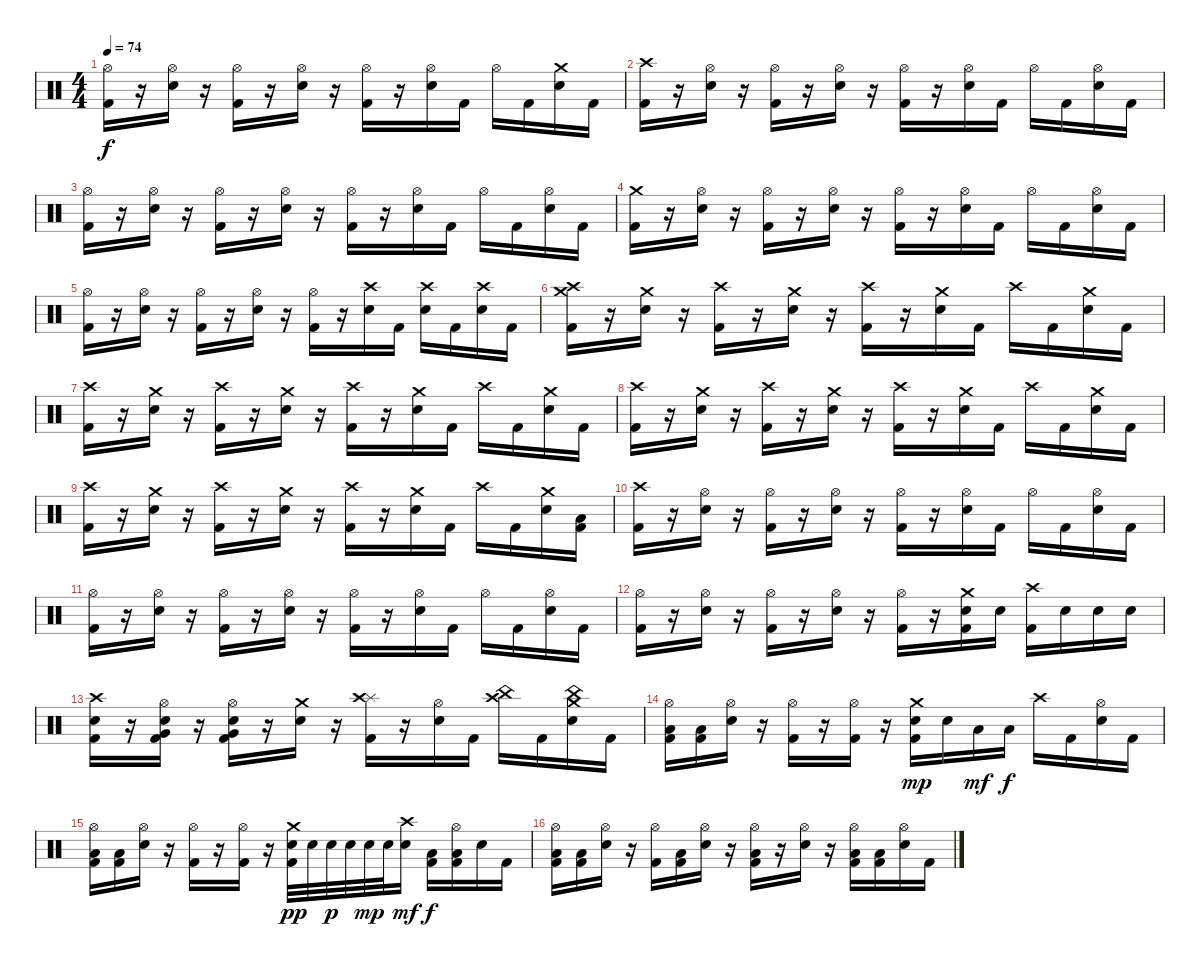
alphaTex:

\track "" {instrument percussion}
\staff {score}
\articulation defaults
\ts (4 4)
\tempo 74
\clef neutral
\ks c
("Hi-Hat (open)" "Kick (hit) 2").16{dy f} r.16 ("Hi-Hat (open)" "Electric Snare (hit)").16 r.16 ("Hi-Hat (open)" "Kick (hit) 2").16 r.16 ("Hi-Hat (open)" "Electric Snare (hit)").16 r.16 ("Hi-Hat (open)" "Kick (hit) 2").16 r.16 ("Hi-Hat (open)" "Electric Snare (hit)").16 "Kick (hit) 2".16 "Hi-Hat (open)".16 "Kick (hit) 2".16 ("Crash medium (hit)" "Electric Snare (hit)").16 "Kick (hit) 2".16 |
("Crash high (hit)" "Kick (hit) 2").16 r.16 ("Hi-Hat (open)" "Electric Snare (hit)").16 r.16 ("Hi-Hat (open)" "Kick (hit) 2").16 r.16 ("Hi-Hat (open)" "Electric Snare (hit)").16 r.16 ("Hi-Hat (open)" "Kick (hit) 2").16 r.16 ("Hi-Hat (open)" "Electric Snare (hit)").16 "Kick (hit) 2".16 "Hi-Hat (open)".16 "Kick (hit) 2".16 ("Hi-Hat (open)" "Electric Snare (hit)").16 "Kick (hit) 2".16 |
("Hi-Hat (open)" "Kick (hit) 2").16 r.16 ("Hi-Hat (open)" "Electric Snare (hit)").16 r.16 ("Hi-Hat (open)" "Kick (hit) 2").16 r.16 ("Hi-Hat (open)" "Electric Snare (hit)").16 r.16 ("Hi-Hat (open)" "Kick (hit) 2").16 r.16 ("Hi-Hat (open)" "Electric Snare (hit)").16 "Kick (hit) 2".16 "Hi-Hat (open)".16 "Kick (hit) 2".16 ("Hi-Hat (open)" "Electric Snare (hit)").16 "Kick (hit) 2".16 |
("Crash medium (hit)" "Kick (hit) 2").16 r.16 ("Hi-Hat (open)" "Electric Snare (hit)").16 r.16 ("Hi-Hat (open)" "Kick (hit) 2").16 r.16 ("Hi-Hat (open)" "Electric Snare (hit)").16 r.16 ("Hi-Hat (open)" "Kick (hit) 2").16 r.16 ("Hi-Hat (open)" "Electric Snare (hit)").16 "Kick (hit) 2".16 "Hi-Hat (open)".16 "Kick (hit) 2".16 ("Hi-Hat (open)" "Electric Snare (hit)").16 "Kick (hit) 2".16 |
("Hi-Hat (open)" "Kick (hit) 2").16 r.16 ("Hi-Hat (open)" "Electric Snare (hit)").16 r.16 ("Hi-Hat (open)" "Kick (hit) 2").16 r.16 ("Hi-Hat (open)" "Electric Snare (hit)").16 r.16 ("Hi-Hat (open)" "Kick (hit) 2").16 r.16 ("Crash high (hit)" "Electric Snare (hit)").16 "Kick (hit) 2".16 ("Crash high (hit)" "Electric Snare (hit)").16 "Kick (hit) 2".16 ("Crash high (hit)" "Electric Snare (hit)").16 "Kick (hit) 2".16 |
("Crash medium (hit)" "Crash high (hit)" "Kick (hit) 2").16 r.16 ("Crash medium (hit)" "Electric Snare (hit)").16 r.16 ("Crash high (hit)" "Kick (hit) 2").16 r.16 ("Crash medium (hit)" "Electric Snare (hit)").16 r.16 ("Crash high (hit)" "Kick (hit) 2").16 r.16 ("Crash medium (hit)" "Electric Snare (hit)").16 "Kick (hit) 2".16 "Crash high (hit)".16 "Kick (hit) 2".16 ("Crash medium (hit)" "Electric Snare (hit)").16 "Kick (hit) 2".16 |
("Crash high (hit)" "Kick (hit) 2").16 r.16 ("Crash medium (hit)" "Electric Snare (hit)").16 r.16 ("Crash high (hit)" "Kick (hit) 2").16 r.16 ("Crash medium (hit)" "Electric Snare (hit)").16 r.16 ("Crash high (hit)" "Kick (hit) 2").16 r.16 ("Crash medium (hit)" "Electric Snare (hit)").16 "Kick (hit) 2".16 "Crash high (hit)".16 "Kick (hit) 2".16 ("Crash medium (hit)" "Electric Snare (hit)").16 "Kick (hit) 2".16 |
("Crash high (hit)" "Kick (hit) 2").16 r.16 ("Crash medium (hit)" "Electric Snare (hit)").16 r.16 ("Crash high (hit)" "Kick (hit) 2").16 r.16 ("Crash medium (hit)" "Electric Snare (hit)").16 r.16 ("Crash high (hit)" "Kick (hit) 2").16 r.16 ("Crash medium (hit)" "Electric Snare (hit)").16 "Kick (hit) 2".16 "Crash high (hit)".16 "Kick (hit) 2".16 ("Crash medium (hit)" "Electric Snare (hit)").16 "Kick (hit) 2".16 |
("Crash high (hit)" "Kick (hit) 2").16 r.16 ("Crash medium (hit)" "Electric Snare (hit)").16 r.16 ("Crash high (hit)" "Kick (hit) 2").16 r.16 ("Crash medium (hit)" "Electric Snare (hit)").16 r.16 ("Crash high (hit)" "Kick (hit) 2").16 r.16 ("Crash medium (hit)" "Electric Snare (hit)").16 "Kick (hit) 2".16 "Crash high (hit)".16 "Kick (hit) 2".16 ("Crash medium (hit)" "Electric Snare (hit)").16 ("Low Tom (hit)" "Kick (hit) 2").16 |
("Crash high (hit)" "Kick (hit) 2").16 r.16 ("Hi-Hat (open)" "Electric Snare (hit)").16 r.16 ("Hi-Hat (open)" "Kick (hit) 2").16 r.16 ("Hi-Hat (open)" "Electric Snare (hit)").16 r.16 ("Hi-Hat (open)" "Kick (hit) 2").16 r.16 ("Hi-Hat (open)" "Electric Snare (hit)").16 "Kick (hit) 2".16 "Hi-Hat (open)".16 "Kick (hit) 2".16 ("Hi-Hat (open)" "Electric Snare (hit)").16 "Kick (hit) 2".16 |
("Hi-Hat (open)" "Kick (hit) 2").16 r.16 ("Hi-Hat (open)" "Electric Snare (hit)").16 r.16 ("Hi-Hat (open)" "Kick (hit) 2").16 r.16 ("Hi-Hat (open)" "Electric Snare (hit)").16 r.16 ("Hi-Hat (open)" "Kick (hit) 2").16 r.16 ("Hi-Hat (open)" "Electric Snare (hit)").16 "Kick (hit) 2".16 "Hi-Hat (open)".16 "Kick (hit) 2".16 ("Hi-Hat (open)" "Electric Snare (hit)").16 "Kick (hit) 2".16 |
("Hi-Hat (open)" "Kick (hit) 2").16 r.16 ("Hi-Hat (open)" "Electric Snare (hit)").16 r.16 ("Hi-Hat (open)" "Kick (hit) 2").16 r.16 ("Hi-Hat (open)" "Electric Snare (hit)").16 r.16 ("Hi-Hat (open)" "Kick (hit) 2").16 r.16 ("Crash medium (hit)" "Electric Snare (hit)" "Kick (hit) 2").16 "Electric Snare (hit)".16 ("Crash high (hit)" "Kick (hit) 2").16 "Electric Snare (hit)".16 "Electric Snare (hit)".16 "Electric Snare (hit)".16 |
("Crash high (hit)" "Electric Snare (hit)" "Kick (hit) 2").16 r.16 ("Hi-Hat (open)" "Electric Snare (hit)" "Very Low Tom (hit)" "Kick (hit) 2").16 r.16 ("Hi-Hat (open)" "Electric Snare (hit)" "Very Low Tom (hit)" "Kick (hit) 2").16 r.16 ("Crash medium (hit)" "Electric Snare (hit)").16 r.16 ("Splash (hit)" "Crash high (hit)" "Kick (hit) 2").16 r.16 ("Hi-Hat (open)" "Electric Snare (hit)").16 "Kick (hit) 2".16 ("Crash high (hit)" "China (hit)").16 "Kick (hit) 2".16 ("Crash medium (hit)" "China (hit)" "Electric Snare (hit)").16 "Kick (hit) 2".16 |
("Hi-Hat (open)" "Kick (hit) 2" "Low Tom (hit)").16 ("Kick (hit) 2" "Low Tom (hit)").16 ("Hi-Hat (open)" "Electric Snare (hit)").16 r.16 ("Hi-Hat (open)" "Kick (hit) 2").16 r.16 ("Hi-Hat (open)" "Kick (hit) 2").16 r.16 ("Crash medium (hit)" "Electric Snare (hit)" "Kick (hit) 2").16{dy mp} "Electric Snare (hit)".16 "Low Tom (hit)".16{dy mf} "Low Tom (hit)".16{dy f} "Crash high (hit)".16 "Kick (hit) 2".16 ("Hi-Hat (open)" "Electric Snare (hit)").16 "Kick (hit) 2".16 |
("Hi-Hat (open)" "Kick (hit) 2" "Low Tom (hit)").16 ("Kick (hit) 2" "Low Tom (hit)").16 ("Hi-Hat (open)" "Electric Snare (hit)").16 r.16 ("Hi-Hat (open)" "Kick (hit) 2").16 r.16 ("Hi-Hat (open)" "Kick (hit) 2").16 r.16 ("Crash medium (hit)" "Electric Snare (hit)" "Kick (hit) 2").32{dy pp} "Electric Snare (hit)".32 "Electric Snare (hit)".32{dy p} "Electric Snare (hit)".32 "Electric Snare (hit)".32{dy mp} "Electric Snare (hit)".32 ("Crash high (hit)" "Electric Snare (hit)").16{dy mf} ("Low Tom (hit)" "Kick (hit) 2").16{dy f} ("Hi-Hat (open)" "Low Tom (hit)" "Kick (hit) 2").16 "Electric Snare (hit)".16 "Kick (hit) 2".16 |
("Hi-Hat (open)" "Low Tom (hit)" "Kick (hit) 2").16 ("Low Tom (hit)" "Kick (hit) 2").16 ("Hi-Hat (open)" "Electric Snare (hit)").16 r.16 ("Hi-Hat (open)" "Kick (hit) 2").16 ("Low Tom (hit)" "Kick (hit) 2").16 ("Hi-Hat (open)" "Electric Snare (hit)").16 r.16 ("Hi-Hat (open)" "Low Tom (hit)" "Kick (hit) 2").16 r.16 ("Hi-Hat (open)" "Electric Snare (hit)").16 r.16 ("Hi-Hat (open)" "Low Tom (hit)" "Kick (hit) 2").16 ("Low Tom (hit)" "Kick (hit) 2").16 ("Hi-Hat (open)" "Electric Snare (hit)").16 "Kick (hit) 2".16
